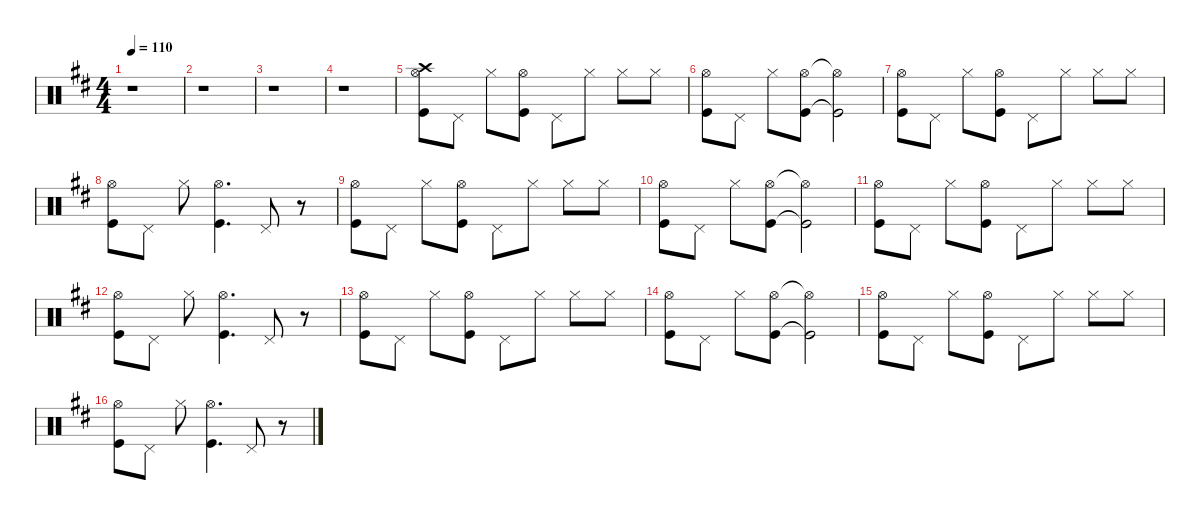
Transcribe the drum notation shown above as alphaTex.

\defaultSystemsLayout 4
\hideDynamics
\bracketExtendMode nobrackets
\singleTrackTrackNamePolicy hidden
\multiTrackTrackNamePolicy hidden
\firstSystemTrackNameMode fullname
\firstSystemTrackNameOrientation horizontal
\otherSystemsTrackNameOrientation horizontal
\track ("Aaron Harris" "drm.") {defaultSystemsLayout 4 instrument percussion}
\staff {score}
\articulation defaults
\ts (4 4)
\beaming (8 2 2 2 2)
\tempo 110
\clef neutral
\ks bminor
r.1{dy f beam Down} |
r.1{beam Down} |
r.1{beam Down} |
r.1{beam Down} |
("Hi-Hat (open)"{acc forcenatural} "Crash high (hit)"{acc forcenatural} "Kick (hit)"{acc forcenatural}).8{beam Down} "Pedal Hi-Hat (hit)"{acc forcenatural}.8{beam Down} "Hi-Hat (closed)"{acc forcenatural}.8{beam Down} ("Hi-Hat (open)"{acc forcenatural} "Kick (hit)"{acc forcenatural}).8{beam Down} "Pedal Hi-Hat (hit)"{acc forcenatural}.8{beam Down} "Hi-Hat (closed)"{acc forcenatural}.8{beam Down} "Hi-Hat (closed)"{acc forcenatural}.8{beam Down} "Hi-Hat (closed)"{acc forcenatural}.8{beam Down} |
("Hi-Hat (open)"{acc forcenatural} "Kick (hit)"{acc forcenatural}).8{beam Down} "Pedal Hi-Hat (hit)"{acc forcenatural}.8{beam Down} "Hi-Hat (closed)"{acc forcenatural}.8{beam Down} ("Hi-Hat (open)"{acc forcenatural} "Kick (hit)"{acc forcenatural}).8{beam Down} ("Hi-Hat (open)"{t acc forcenatural} "Kick (hit)"{t acc forcenatural}).2{beam Down} |
("Hi-Hat (open)"{acc forcenatural} "Kick (hit)"{acc forcenatural}).8{beam Down} "Pedal Hi-Hat (hit)"{acc forcenatural}.8{beam Down} "Hi-Hat (closed)"{acc forcenatural}.8{beam Down} ("Hi-Hat (open)"{acc forcenatural} "Kick (hit)"{acc forcenatural}).8{beam Down} "Pedal Hi-Hat (hit)"{acc forcenatural}.8{beam Down} "Hi-Hat (closed)"{acc forcenatural}.8{beam Down} "Hi-Hat (closed)"{acc forcenatural}.8{beam Down} "Hi-Hat (closed)"{acc forcenatural}.8{beam Down} |
("Hi-Hat (open)"{acc forcenatural} "Kick (hit)"{acc forcenatural}).8{beam Down} "Pedal Hi-Hat (hit)"{acc forcenatural}.8{beam Down} "Hi-Hat (closed)"{acc forcenatural}.8{beam Down} ("Hi-Hat (open)"{acc forcenatural} "Kick (hit)"{acc forcenatural}).4{d beam Down} "Pedal Hi-Hat (hit)"{acc forcenatural}.8{beam Up} r.8{beam Up} |
("Hi-Hat (open)"{acc forcenatural} "Kick (hit)"{acc forcenatural}).8{beam Down} "Pedal Hi-Hat (hit)"{acc forcenatural}.8{beam Down} "Hi-Hat (closed)"{acc forcenatural}.8{beam Down} ("Hi-Hat (open)"{acc forcenatural} "Kick (hit)"{acc forcenatural}).8{beam Down} "Pedal Hi-Hat (hit)"{acc forcenatural}.8{beam Down} "Hi-Hat (closed)"{acc forcenatural}.8{beam Down} "Hi-Hat (closed)"{acc forcenatural}.8{beam Down} "Hi-Hat (closed)"{acc forcenatural}.8{beam Down} |
("Hi-Hat (open)"{acc forcenatural} "Kick (hit)"{acc forcenatural}).8{beam Down} "Pedal Hi-Hat (hit)"{acc forcenatural}.8{beam Down} "Hi-Hat (closed)"{acc forcenatural}.8{beam Down} ("Hi-Hat (open)"{acc forcenatural} "Kick (hit)"{acc forcenatural}).8{beam Down} ("Hi-Hat (open)"{t acc forcenatural} "Kick (hit)"{t acc forcenatural}).2{beam Down} |
("Hi-Hat (open)"{acc forcenatural} "Kick (hit)"{acc forcenatural}).8{beam Down} "Pedal Hi-Hat (hit)"{acc forcenatural}.8{beam Down} "Hi-Hat (closed)"{acc forcenatural}.8{beam Down} ("Hi-Hat (open)"{acc forcenatural} "Kick (hit)"{acc forcenatural}).8{beam Down} "Pedal Hi-Hat (hit)"{acc forcenatural}.8{beam Down} "Hi-Hat (closed)"{acc forcenatural}.8{beam Down} "Hi-Hat (closed)"{acc forcenatural}.8{beam Down} "Hi-Hat (closed)"{acc forcenatural}.8{beam Down} |
("Hi-Hat (open)"{acc forcenatural} "Kick (hit)"{acc forcenatural}).8{beam Down} "Pedal Hi-Hat (hit)"{acc forcenatural}.8{beam Down} "Hi-Hat (closed)"{acc forcenatural}.8{beam Down} ("Hi-Hat (open)"{acc forcenatural} "Kick (hit)"{acc forcenatural}).4{d beam Down} "Pedal Hi-Hat (hit)"{acc forcenatural}.8{beam Up} r.8{beam Up} |
("Hi-Hat (open)"{acc forcenatural} "Kick (hit)"{acc forcenatural}).8{beam Down} "Pedal Hi-Hat (hit)"{acc forcenatural}.8{beam Down} "Hi-Hat (closed)"{acc forcenatural}.8{beam Down} ("Hi-Hat (open)"{acc forcenatural} "Kick (hit)"{acc forcenatural}).8{beam Down} "Pedal Hi-Hat (hit)"{acc forcenatural}.8{beam Down} "Hi-Hat (closed)"{acc forcenatural}.8{beam Down} "Hi-Hat (closed)"{acc forcenatural}.8{beam Down} "Hi-Hat (closed)"{acc forcenatural}.8{beam Down} |
("Hi-Hat (open)"{acc forcenatural} "Kick (hit)"{acc forcenatural}).8{beam Down} "Pedal Hi-Hat (hit)"{acc forcenatural}.8{beam Down} "Hi-Hat (closed)"{acc forcenatural}.8{beam Down} ("Hi-Hat (open)"{acc forcenatural} "Kick (hit)"{acc forcenatural}).8{beam Down} ("Hi-Hat (open)"{t acc forcenatural} "Kick (hit)"{t acc forcenatural}).2{beam Down} |
("Hi-Hat (open)"{acc forcenatural} "Kick (hit)"{acc forcenatural}).8{beam Down} "Pedal Hi-Hat (hit)"{acc forcenatural}.8{beam Down} "Hi-Hat (closed)"{acc forcenatural}.8{beam Down} ("Hi-Hat (open)"{acc forcenatural} "Kick (hit)"{acc forcenatural}).8{beam Down} "Pedal Hi-Hat (hit)"{acc forcenatural}.8{beam Down} "Hi-Hat (closed)"{acc forcenatural}.8{beam Down} "Hi-Hat (closed)"{acc forcenatural}.8{beam Down} "Hi-Hat (closed)"{acc forcenatural}.8{beam Down} |
("Hi-Hat (open)"{acc forcenatural} "Kick (hit)"{acc forcenatural}).8{beam Down} "Pedal Hi-Hat (hit)"{acc forcenatural}.8{beam Down} "Hi-Hat (closed)"{acc forcenatural}.8{beam Down} ("Hi-Hat (open)"{acc forcenatural} "Kick (hit)"{acc forcenatural}).4{d beam Down} "Pedal Hi-Hat (hit)"{acc forcenatural}.8{beam Up} r.8{beam Up}
